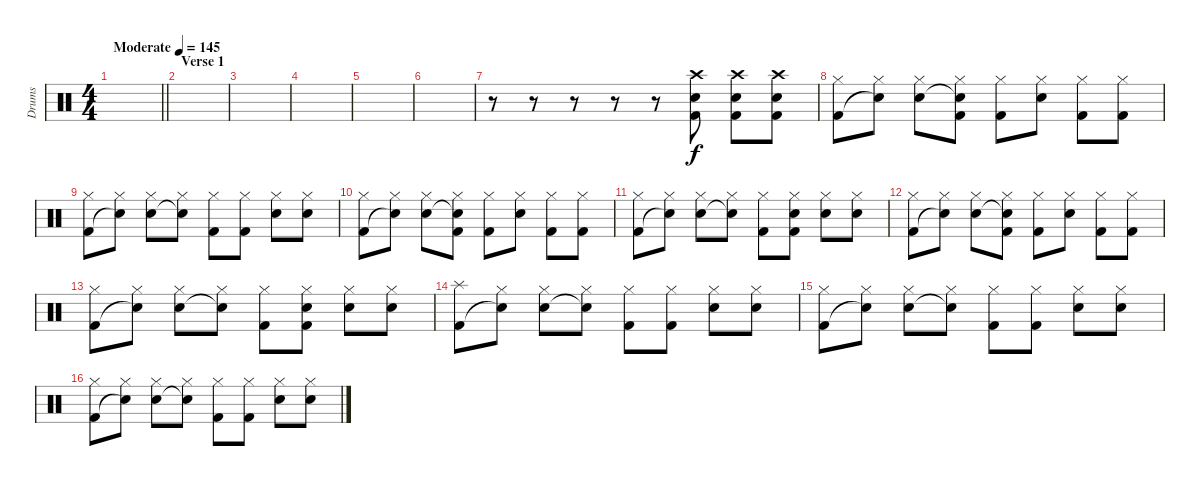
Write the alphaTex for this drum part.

\track ("Drums" "Drums") {instrument percussion}
\staff {score}
\articulation defaults
\ts (4 4)
\tempo (145 "Moderate")
\clef neutral
\barLineRight lightlight
\ks c
|
\section ("" "Verse 1")
|
|
|
|
|
r.8 r.8 r.8 r.8 r.8 ("Crash high (hit)" "Electric Snare (hit)" "Kick (hit) 2").8 ("Crash high (hit)" "Electric Snare (hit)" "Kick (hit) 2").8 ("Crash high (hit)" "Electric Snare (hit)" "Kick (hit) 2").8 |
("Hi-Hat (closed)" "Kick (hit) 2").8 ("Hi-Hat (closed)" "Snare (hit)"{t}).8 ("Hi-Hat (closed)" "Electric Snare (hit)").8 ("Hi-Hat (closed)" "Snare (hit)"{t} "Kick (hit) 2").8 ("Hi-Hat (closed)" "Kick (hit) 2").8 ("Hi-Hat (closed)" "Electric Snare (hit)").8 ("Hi-Hat (closed)" "Kick (hit) 2").8 ("Hi-Hat (closed)" "Kick (hit) 2").8 |
("Hi-Hat (closed)" "Kick (hit) 2").8 ("Hi-Hat (closed)" "Snare (hit)"{t}).8 ("Hi-Hat (closed)" "Electric Snare (hit)").8 ("Hi-Hat (closed)" "Snare (hit)"{t}).8 ("Hi-Hat (closed)" "Kick (hit) 2").8 ("Hi-Hat (closed)" "Kick (hit) 2").8 ("Hi-Hat (closed)" "Electric Snare (hit)").8 ("Hi-Hat (closed)" "Electric Snare (hit)").8 |
("Hi-Hat (closed)" "Kick (hit) 2").8 ("Hi-Hat (closed)" "Snare (hit)"{t}).8 ("Hi-Hat (closed)" "Electric Snare (hit)").8 ("Hi-Hat (closed)" "Snare (hit)"{t} "Kick (hit) 2").8 ("Hi-Hat (closed)" "Kick (hit) 2").8 ("Hi-Hat (closed)" "Electric Snare (hit)").8 ("Hi-Hat (closed)" "Kick (hit) 2").8 ("Hi-Hat (closed)" "Kick (hit) 2").8 |
("Hi-Hat (closed)" "Kick (hit) 2").8 ("Hi-Hat (closed)" "Snare (hit)"{t}).8 ("Hi-Hat (closed)" "Electric Snare (hit)").8 ("Hi-Hat (closed)" "Snare (hit)"{t}).8 ("Hi-Hat (closed)" "Kick (hit) 2").8 ("Hi-Hat (closed)" "Electric Snare (hit)" "Kick (hit) 2").8 ("Hi-Hat (closed)" "Electric Snare (hit)").8 ("Hi-Hat (closed)" "Electric Snare (hit)").8 |
("Hi-Hat (closed)" "Kick (hit) 2").8 ("Hi-Hat (closed)" "Snare (hit)"{t}).8 ("Hi-Hat (closed)" "Electric Snare (hit)").8 ("Hi-Hat (closed)" "Snare (hit)"{t} "Kick (hit) 2").8 ("Hi-Hat (closed)" "Kick (hit) 2").8 ("Hi-Hat (closed)" "Electric Snare (hit)").8 ("Hi-Hat (closed)" "Kick (hit) 2").8 ("Hi-Hat (closed)" "Kick (hit) 2").8 |
("Hi-Hat (closed)" "Kick (hit) 2").8 ("Hi-Hat (closed)" "Snare (hit)"{t}).8 ("Hi-Hat (closed)" "Electric Snare (hit)").8 ("Hi-Hat (closed)" "Snare (hit)"{t}).8 ("Hi-Hat (closed)" "Kick (hit) 2").8 ("Hi-Hat (closed)" "Electric Snare (hit)" "Kick (hit) 2").8 ("Hi-Hat (closed)" "Electric Snare (hit)").8 ("Hi-Hat (closed)" "Electric Snare (hit)").8 |
("Splash (hit)" "Kick (hit) 2").8 ("Hi-Hat (closed)" "Snare (hit)"{t}).8 ("Hi-Hat (closed)" "Electric Snare (hit)").8 ("Hi-Hat (closed)" "Snare (hit)"{t}).8 ("Hi-Hat (closed)" "Kick (hit) 2").8 ("Hi-Hat (closed)" "Kick (hit) 2").8 ("Hi-Hat (closed)" "Electric Snare (hit)").8 ("Hi-Hat (closed)" "Electric Snare (hit)").8 |
("Hi-Hat (closed)" "Kick (hit) 2").8 ("Hi-Hat (closed)" "Snare (hit)"{t}).8 ("Hi-Hat (closed)" "Electric Snare (hit)").8 ("Hi-Hat (closed)" "Snare (hit)"{t}).8 ("Hi-Hat (closed)" "Kick (hit) 2").8 ("Hi-Hat (closed)" "Kick (hit) 2").8 ("Hi-Hat (closed)" "Electric Snare (hit)").8 ("Hi-Hat (closed)" "Electric Snare (hit)").8 |
("Hi-Hat (closed)" "Kick (hit) 2").8 ("Hi-Hat (closed)" "Snare (hit)"{t}).8 ("Hi-Hat (closed)" "Electric Snare (hit)").8 ("Hi-Hat (closed)" "Snare (hit)"{t}).8 ("Hi-Hat (closed)" "Kick (hit) 2").8 ("Hi-Hat (closed)" "Kick (hit) 2").8 ("Hi-Hat (closed)" "Electric Snare (hit)").8 ("Hi-Hat (closed)" "Electric Snare (hit)").8
